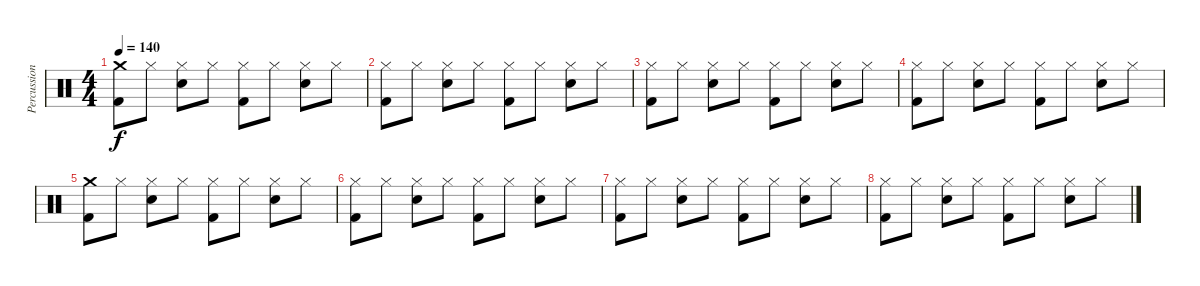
\track ("Percussion" "Percussion") {instrument percussion}
\staff {score}
\articulation defaults
\ts (4 4)
\tempo 140
\clef neutral
\ks c
("Crash medium (hit)" "Kick (hit) 2").8{dy f} "Hi-Hat (closed)".8 ("Hi-Hat (closed)" "Snare (hit) 2").8 "Hi-Hat (closed)".8 ("Hi-Hat (closed)" "Kick (hit) 2").8 "Hi-Hat (closed)".8 ("Hi-Hat (closed)" "Snare (hit) 2").8 "Hi-Hat (closed)".8 |
("Hi-Hat (closed)" "Kick (hit) 2").8 "Hi-Hat (closed)".8 ("Hi-Hat (closed)" "Snare (hit) 2").8 "Hi-Hat (closed)".8 ("Hi-Hat (closed)" "Kick (hit) 2").8 "Hi-Hat (closed)".8 ("Hi-Hat (closed)" "Snare (hit) 2").8 "Hi-Hat (closed)".8 |
("Hi-Hat (closed)" "Kick (hit) 2").8 "Hi-Hat (closed)".8 ("Hi-Hat (closed)" "Snare (hit) 2").8 "Hi-Hat (closed)".8 ("Hi-Hat (closed)" "Kick (hit) 2").8 "Hi-Hat (closed)".8 ("Hi-Hat (closed)" "Snare (hit) 2").8 "Hi-Hat (closed)".8 |
("Hi-Hat (closed)" "Kick (hit) 2").8 "Hi-Hat (closed)".8 ("Hi-Hat (closed)" "Snare (hit) 2").8 "Hi-Hat (closed)".8 ("Hi-Hat (closed)" "Kick (hit) 2").8 "Hi-Hat (closed)".8 ("Hi-Hat (closed)" "Snare (hit) 2").8 "Hi-Hat (closed)".8 |
("Crash medium (hit)" "Kick (hit) 2").8 "Hi-Hat (closed)".8 ("Hi-Hat (closed)" "Snare (hit) 2").8 "Hi-Hat (closed)".8 ("Hi-Hat (closed)" "Kick (hit) 2").8 "Hi-Hat (closed)".8 ("Hi-Hat (closed)" "Snare (hit) 2").8 "Hi-Hat (closed)".8 |
("Hi-Hat (closed)" "Kick (hit) 2").8 "Hi-Hat (closed)".8 ("Hi-Hat (closed)" "Snare (hit) 2").8 "Hi-Hat (closed)".8 ("Hi-Hat (closed)" "Kick (hit) 2").8 "Hi-Hat (closed)".8 ("Hi-Hat (closed)" "Snare (hit) 2").8 "Hi-Hat (closed)".8 |
("Hi-Hat (closed)" "Kick (hit) 2").8 "Hi-Hat (closed)".8 ("Hi-Hat (closed)" "Snare (hit) 2").8 "Hi-Hat (closed)".8 ("Hi-Hat (closed)" "Kick (hit) 2").8 "Hi-Hat (closed)".8 ("Hi-Hat (closed)" "Snare (hit) 2").8 "Hi-Hat (closed)".8 |
("Hi-Hat (closed)" "Kick (hit) 2").8 "Hi-Hat (closed)".8 ("Hi-Hat (closed)" "Snare (hit) 2").8 "Hi-Hat (closed)".8 ("Hi-Hat (closed)" "Kick (hit) 2").8 "Hi-Hat (closed)".8 ("Hi-Hat (closed)" "Snare (hit) 2").8 "Hi-Hat (closed)".8
